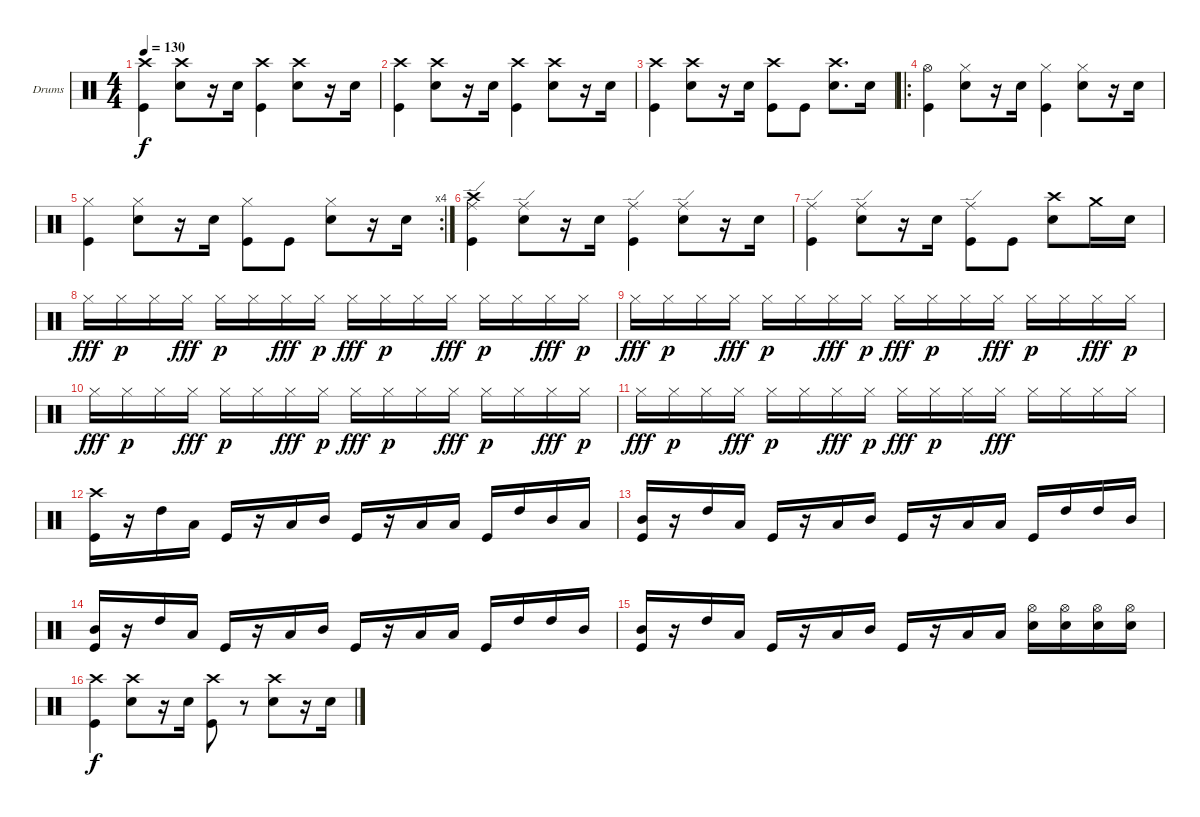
\bracketExtendMode groupsimilarinstruments
\firstSystemTrackNameOrientation horizontal
\otherSystemsTrackNameOrientation horizontal
\track ("Drumkit" "Drums") {instrument percussion}
\staff {score}
\articulation defaults
\ts (4 4)
\tempo 130
\clef neutral
\ks c
("Kick (hit)" "Crash high (hit)").4{dy f} ("Snare (hit) 2" "Crash high (hit)").8 r.16 "Snare (hit) 2".16 ("Kick (hit)" "Crash high (hit)").4 ("Snare (hit) 2" "Crash high (hit)").8 r.16 "Snare (hit) 2".16 |
("Kick (hit)" "Crash high (hit)").4 ("Snare (hit) 2" "Crash high (hit)").8 r.16 "Snare (hit) 2".16 ("Kick (hit)" "Crash high (hit)").4 ("Snare (hit) 2" "Crash high (hit)").8 r.16 "Snare (hit) 2".16 |
("Kick (hit)" "Crash high (hit)").4 ("Snare (hit) 2" "Crash high (hit)").8 r.16 "Snare (hit) 2".16 ("Kick (hit)" "Crash high (hit)").8 "Kick (hit)".8 ("Snare (hit) 2" "Crash high (hit)").8{d} "Snare (hit) 2".16 |
\ro
("Kick (hit)" "Hi-Hat (open)").4 ("Snare (hit) 2" "Hi-Hat (closed)").8 r.16 "Snare (hit) 2".16 ("Kick (hit)" "Hi-Hat (closed)").4 ("Snare (hit) 2" "Hi-Hat (closed)").8 r.16 "Snare (hit) 2".16 |
\rc 4
("Kick (hit)" "Hi-Hat (closed)").4 ("Snare (hit) 2" "Hi-Hat (closed)").8 r.16 "Snare (hit) 2".16 ("Kick (hit)" "Hi-Hat (closed)").8 "Kick (hit)".8 ("Snare (hit) 2" "Hi-Hat (closed)").8 r.16 "Snare (hit) 2".16 |
("Kick (hit)" "Ride (edge)" "Crash high (hit)").4 ("Snare (hit) 2" "Ride (edge)").8 r.16 "Snare (hit) 2".16 ("Kick (hit)" "Ride (edge)").4 ("Snare (hit) 2" "Ride (edge)").8 r.16 "Snare (hit) 2".16 |
("Kick (hit)" "Ride (edge)").4 ("Snare (hit) 2" "Ride (edge)").8 r.16 "Snare (hit) 2".16 ("Kick (hit)" "Ride (edge)").8 "Kick (hit)".8 ("Snare (hit) 2" "Crash high (hit)").8 "Crash medium (hit)".16 "Snare (hit) 2".16 |
"Hi-Hat (closed)".16{dy fff} "Hi-Hat (closed)".16{dy p} "Hi-Hat (closed)".16 "Hi-Hat (closed)".16{dy fff} "Hi-Hat (closed)".16{dy p} "Hi-Hat (closed)".16 "Hi-Hat (closed)".16{dy fff} "Hi-Hat (closed)".16{dy p} "Hi-Hat (closed)".16{dy fff} "Hi-Hat (closed)".16{dy p} "Hi-Hat (closed)".16 "Hi-Hat (closed)".16{dy fff} "Hi-Hat (closed)".16{dy p} "Hi-Hat (closed)".16 "Hi-Hat (closed)".16{dy fff} "Hi-Hat (closed)".16{dy p} |
"Hi-Hat (closed)".16{dy fff} "Hi-Hat (closed)".16{dy p} "Hi-Hat (closed)".16 "Hi-Hat (closed)".16{dy fff} "Hi-Hat (closed)".16{dy p} "Hi-Hat (closed)".16 "Hi-Hat (closed)".16{dy fff} "Hi-Hat (closed)".16{dy p} "Hi-Hat (closed)".16{dy fff} "Hi-Hat (closed)".16{dy p} "Hi-Hat (closed)".16 "Hi-Hat (closed)".16{dy fff} "Hi-Hat (closed)".16{dy p} "Hi-Hat (closed)".16 "Hi-Hat (closed)".16{dy fff} "Hi-Hat (closed)".16{dy p} |
"Hi-Hat (closed)".16{dy fff} "Hi-Hat (closed)".16{dy p} "Hi-Hat (closed)".16 "Hi-Hat (closed)".16{dy fff} "Hi-Hat (closed)".16{dy p} "Hi-Hat (closed)".16 "Hi-Hat (closed)".16{dy fff} "Hi-Hat (closed)".16{dy p} "Hi-Hat (closed)".16{dy fff} "Hi-Hat (closed)".16{dy p} "Hi-Hat (closed)".16 "Hi-Hat (closed)".16{dy fff} "Hi-Hat (closed)".16{dy p} "Hi-Hat (closed)".16 "Hi-Hat (closed)".16{dy fff} "Hi-Hat (closed)".16{dy p} |
"Hi-Hat (closed)".16{dy fff} "Hi-Hat (closed)".16{dy p} "Hi-Hat (closed)".16 "Hi-Hat (closed)".16{dy fff} "Hi-Hat (closed)".16{dy p} "Hi-Hat (closed)".16 "Hi-Hat (closed)".16{dy fff} "Hi-Hat (closed)".16{dy p} "Hi-Hat (closed)".16{dy fff} "Hi-Hat (closed)".16{dy p} "Hi-Hat (closed)".16 "Hi-Hat (closed)".16{dy fff} "Hi-Hat (closed)".16 "Hi-Hat (closed)".16 "Hi-Hat (closed)".16 "Hi-Hat (closed)".16 |
("Crash high (hit)" "Kick (hit)").16 r.16 "High Tom (hit)".16 "Low Tom (hit)".16 "Kick (hit)".16 r.16 "Low Tom (hit)".16 "Mid Tom (hit)".16 "Kick (hit)".16 r.16 "Low Tom (hit)".16 "Low Tom (hit)".16 "Kick (hit)".16 "High Tom (hit)".16 "Mid Tom (hit)".16 "Low Tom (hit)".16 |
("Mid Tom (hit)" "Kick (hit)").16 r.16 "High Tom (hit)".16 "Low Tom (hit)".16 "Kick (hit)".16 r.16 "Low Tom (hit)".16 "Mid Tom (hit)".16 "Kick (hit)".16 r.16 "Low Tom (hit)".16 "Low Tom (hit)".16 "Kick (hit)".16 "High Tom (hit)".16 "High Tom (hit)".16 "Mid Tom (hit)".16 |
("Mid Tom (hit)" "Kick (hit)").16 r.16 "High Tom (hit)".16 "Low Tom (hit)".16 "Kick (hit)".16 r.16 "Low Tom (hit)".16 "Mid Tom (hit)".16 "Kick (hit)".16 r.16 "Low Tom (hit)".16 "Low Tom (hit)".16 "Kick (hit)".16 "High Tom (hit)".16 "High Tom (hit)".16 "Mid Tom (hit)".16 |
("Mid Tom (hit)" "Kick (hit)").16 r.16 "High Tom (hit)".16 "Low Tom (hit)".16 "Kick (hit)".16 r.16 "Low Tom (hit)".16 "Mid Tom (hit)".16 "Kick (hit)".16 r.16 "Low Tom (hit)".16 "Low Tom (hit)".16 ("Snare (hit) 2" "Hi-Hat (open)").16 ("Snare (hit) 2" "Hi-Hat (open)").16 ("Snare (hit) 2" "Hi-Hat (open)").16 ("Snare (hit) 2" "Hi-Hat (open)").16 |
("Kick (hit)" "Crash high (hit)").4{dy f} ("Snare (hit) 2" "Crash high (hit)").8 r.16 "Snare (hit) 2".16 ("Kick (hit)" "Crash high (hit)").8 r.8 ("Snare (hit) 2" "Crash high (hit)").8 r.16 "Snare (hit) 2".16
